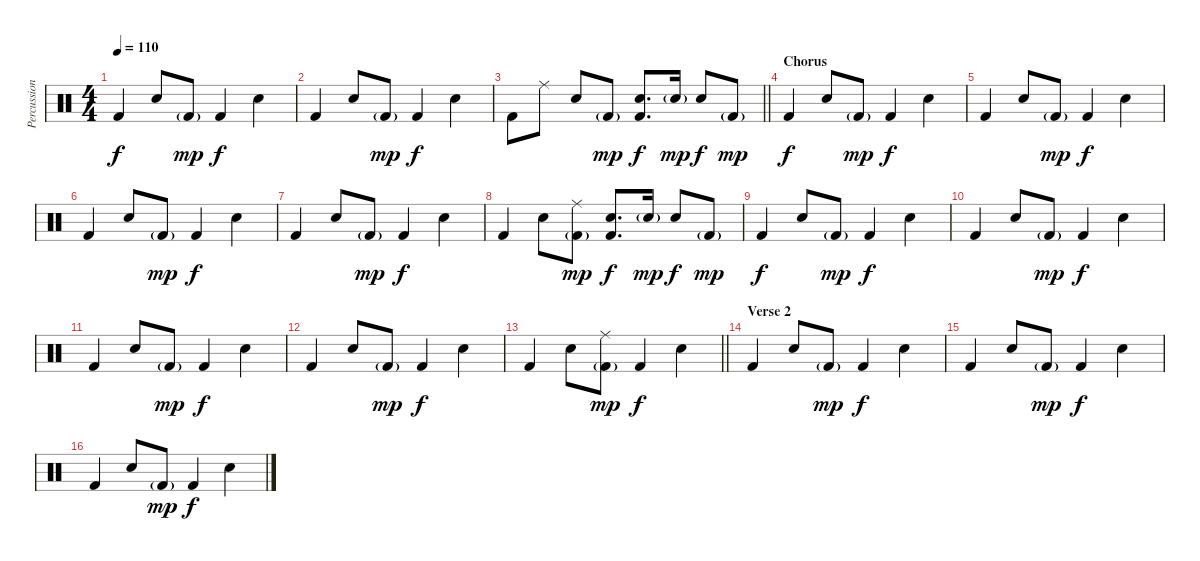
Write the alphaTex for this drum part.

\track ("Percussion" "Percussion") {instrument percussion}
\staff {score}
\articulation defaults
\ts (4 4)
\tempo 110
\clef neutral
\ks c "Kick (hit) 2".4{dy f} "Snare (hit) 2".8 "Kick (hit) 2"{g}.8{dy mp} "Kick (hit) 2".4{dy f} "Snare (hit) 2".4
|
"Kick (hit) 2".4 "Snare (hit) 2".8 "Kick (hit) 2"{g}.8{dy mp} "Kick (hit) 2".4{dy f} "Snare (hit) 2".4 |
\barLineRight lightlight "Kick (hit) 2".8 "Ride (middle)".8 "Snare (hit) 2".8 "Kick (hit) 2"{g}.8{dy mp}
("Snare (hit) 2" "Kick (hit) 2").8{d dy f} "Snare (hit) 2"{g}.16{dy mp} "Snare (hit) 2".8{dy f} "Kick (hit) 2"{g}.8{dy mp} |
\section ("" "Chorus")
"Kick (hit) 2".4{dy f} "Snare (hit) 2".8 "Kick (hit) 2"{g}.8{dy mp} "Kick (hit) 2".4{dy f} "Snare (hit) 2".4 |
"Kick (hit) 2".4 "Snare (hit) 2".8 "Kick (hit) 2"{g}.8{dy mp} "Kick (hit) 2".4{dy f} "Snare (hit) 2".4 |
"Kick (hit) 2".4 "Snare (hit) 2".8 "Kick (hit) 2"{g}.8{dy mp} "Kick (hit) 2".4{dy f} "Snare (hit) 2".4 |
"Kick (hit) 2".4 "Snare (hit) 2".8 "Kick (hit) 2"{g}.8{dy mp} "Kick (hit) 2".4{dy f} "Snare (hit) 2".4 |
"Kick (hit) 2".4 "Snare (hit) 2".8 ("Ride (middle)" "Kick (hit) 2"{g}).8{dy mp} ("Snare (hit) 2" "Kick (hit) 2").8{d dy f} "Snare (hit) 2"{g}.16{dy mp} "Snare (hit) 2".8{dy f} "Kick (hit) 2"{g}.8{dy mp} |
"Kick (hit) 2".4{dy f} "Snare (hit) 2".8 "Kick (hit) 2"{g}.8{dy mp} "Kick (hit) 2".4{dy f} "Snare (hit) 2".4 |
"Kick (hit) 2".4 "Snare (hit) 2".8 "Kick (hit) 2"{g}.8{dy mp} "Kick (hit) 2".4{dy f} "Snare (hit) 2".4 |
"Kick (hit) 2".4 "Snare (hit) 2".8 "Kick (hit) 2"{g}.8{dy mp} "Kick (hit) 2".4{dy f} "Snare (hit) 2".4 |
"Kick (hit) 2".4 "Snare (hit) 2".8 "Kick (hit) 2"{g}.8{dy mp} "Kick (hit) 2".4{dy f} "Snare (hit) 2".4 |
\barLineRight lightlight "Kick (hit) 2".4 "Snare (hit) 2".8
("Ride (middle)" "Kick (hit) 2"{g}).8{dy mp} "Kick (hit) 2".4{dy f} "Snare (hit) 2".4 |
\section ("" "Verse 2")
"Kick (hit) 2".4 "Snare (hit) 2".8 "Kick (hit) 2"{g}.8{dy mp} "Kick (hit) 2".4{dy f} "Snare (hit) 2".4 |
"Kick (hit) 2".4 "Snare (hit) 2".8 "Kick (hit) 2"{g}.8{dy mp} "Kick (hit) 2".4{dy f} "Snare (hit) 2".4 |
"Kick (hit) 2".4 "Snare (hit) 2".8 "Kick (hit) 2"{g}.8{dy mp} "Kick (hit) 2".4{dy f} "Snare (hit) 2".4
